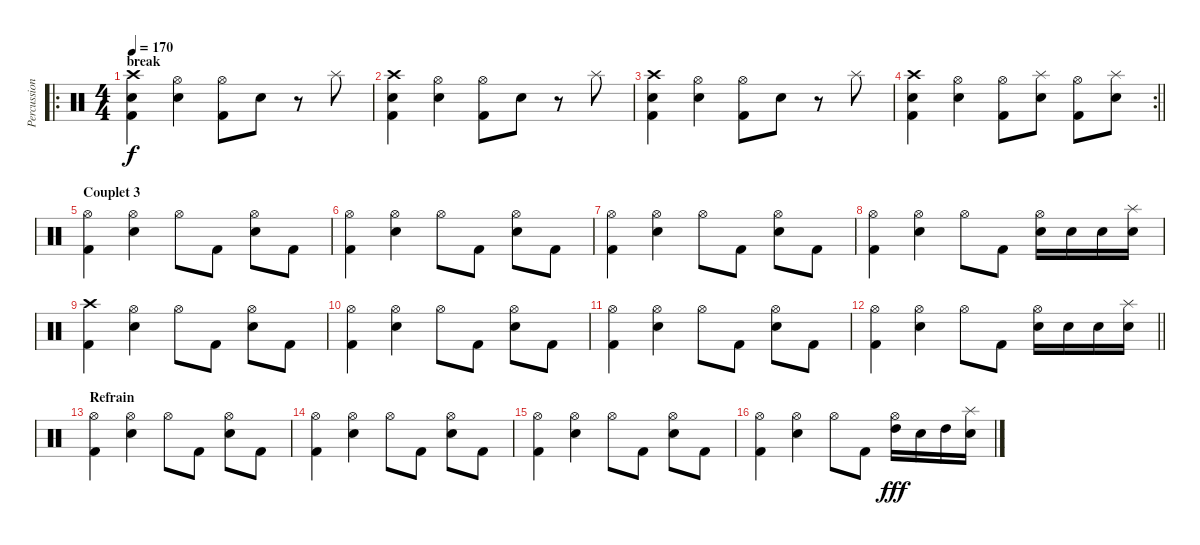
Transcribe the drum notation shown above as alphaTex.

\track ("Percussions" "Percussion") {instrument percussion}
\staff {score}
\articulation defaults
\ro
\ts (4 4)
\section ("" "break")
\tempo 170
\clef neutral
\ks c
("Crash high (hit)" "Snare (hit) 2" "Kick (hit) 2").4{dy f beam Down} ("Hi-Hat (open)" "Snare (hit) 2").4 ("Hi-Hat (open)" "Kick (hit) 2").8 "Snare (hit) 2".8 r.8 "Splash (hit)".8 |
("Crash high (hit)" "Snare (hit) 2" "Kick (hit) 2").4 ("Hi-Hat (open)" "Snare (hit) 2").4 ("Hi-Hat (open)" "Kick (hit) 2").8 "Snare (hit) 2".8 r.8 "Splash (hit)".8 |
("Crash high (hit)" "Snare (hit) 2" "Kick (hit) 2").4 ("Hi-Hat (open)" "Snare (hit) 2").4 ("Hi-Hat (open)" "Kick (hit) 2").8 "Snare (hit) 2".8 r.8 "Splash (hit)".8 |
\rc 2
\barLineRight lightlight
("Crash high (hit)" "Snare (hit) 2" "Kick (hit) 2").4 ("Hi-Hat (open)" "Snare (hit) 2").4 ("Hi-Hat (open)" "Kick (hit) 2").8 ("Splash (hit)" "Snare (hit) 2").8 ("Hi-Hat (open)" "Kick (hit) 2").8 ("Splash (hit)" "Snare (hit) 2").8 |
\section ("" "Couplet 3")
("Hi-Hat (open)" "Kick (hit) 2").4 ("Hi-Hat (open)" "Snare (hit) 2").4 "Hi-Hat (open)".8 "Kick (hit) 2".8 ("Hi-Hat (open)" "Snare (hit) 2").8 "Kick (hit) 2".8 |
("Hi-Hat (open)" "Kick (hit) 2").4 ("Hi-Hat (open)" "Snare (hit) 2").4 "Hi-Hat (open)".8 "Kick (hit) 2".8 ("Hi-Hat (open)" "Snare (hit) 2").8 "Kick (hit) 2".8 |
("Hi-Hat (open)" "Kick (hit) 2").4 ("Hi-Hat (open)" "Snare (hit) 2").4 "Hi-Hat (open)".8 "Kick (hit) 2".8 ("Hi-Hat (open)" "Snare (hit) 2").8 "Kick (hit) 2".8 |
("Hi-Hat (open)" "Kick (hit) 2").4 ("Hi-Hat (open)" "Snare (hit) 2").4 "Hi-Hat (open)".8 "Kick (hit) 2".8 ("Hi-Hat (open)" "Snare (hit) 2").16 "Snare (hit) 2".16 "Snare (hit) 2".16 ("Splash (hit)" "Snare (hit) 2").16 |
("Crash high (hit)" "Kick (hit) 2").4 ("Hi-Hat (open)" "Snare (hit) 2").4 "Hi-Hat (open)".8 "Kick (hit) 2".8 ("Hi-Hat (open)" "Snare (hit) 2").8 "Kick (hit) 2".8 |
("Hi-Hat (open)" "Kick (hit) 2").4 ("Hi-Hat (open)" "Snare (hit) 2").4 "Hi-Hat (open)".8 "Kick (hit) 2".8 ("Hi-Hat (open)" "Snare (hit) 2").8 "Kick (hit) 2".8 |
("Hi-Hat (open)" "Kick (hit) 2").4 ("Hi-Hat (open)" "Snare (hit) 2").4 "Hi-Hat (open)".8 "Kick (hit) 2".8 ("Hi-Hat (open)" "Snare (hit) 2").8 "Kick (hit) 2".8 |
\barLineRight lightlight
("Hi-Hat (open)" "Kick (hit) 2").4 ("Hi-Hat (open)" "Snare (hit) 2").4 "Hi-Hat (open)".8 "Kick (hit) 2".8 ("Hi-Hat (open)" "Snare (hit) 2").16 "Snare (hit) 2".16 "Snare (hit) 2".16 ("Splash (hit)" "Snare (hit) 2").16 |
\section ("" "Refrain")
("Hi-Hat (open)" "Kick (hit) 2").4 ("Hi-Hat (open)" "Snare (hit) 2").4 "Hi-Hat (open)".8 "Kick (hit) 2".8 ("Hi-Hat (open)" "Snare (hit) 2").8 "Kick (hit) 2".8 |
("Hi-Hat (open)" "Kick (hit) 2").4 ("Hi-Hat (open)" "Snare (hit) 2").4 "Hi-Hat (open)".8 "Kick (hit) 2".8 ("Hi-Hat (open)" "Snare (hit) 2").8 "Kick (hit) 2".8 |
("Hi-Hat (open)" "Kick (hit) 2").4 ("Hi-Hat (open)" "Snare (hit) 2").4 "Hi-Hat (open)".8 "Kick (hit) 2".8 ("Hi-Hat (open)" "Snare (hit) 2").8 "Kick (hit) 2".8 |
("Hi-Hat (open)" "Kick (hit) 2").4 ("Hi-Hat (open)" "Snare (hit) 2").4 "Hi-Hat (open)".8 "Kick (hit) 2".8 ("Hi-Hat (open)" "High Tom (hit)").16{dy fff} "Snare (hit) 2".16 "High Tom (hit)".16 ("Splash (hit)" "Snare (hit) 2").16
